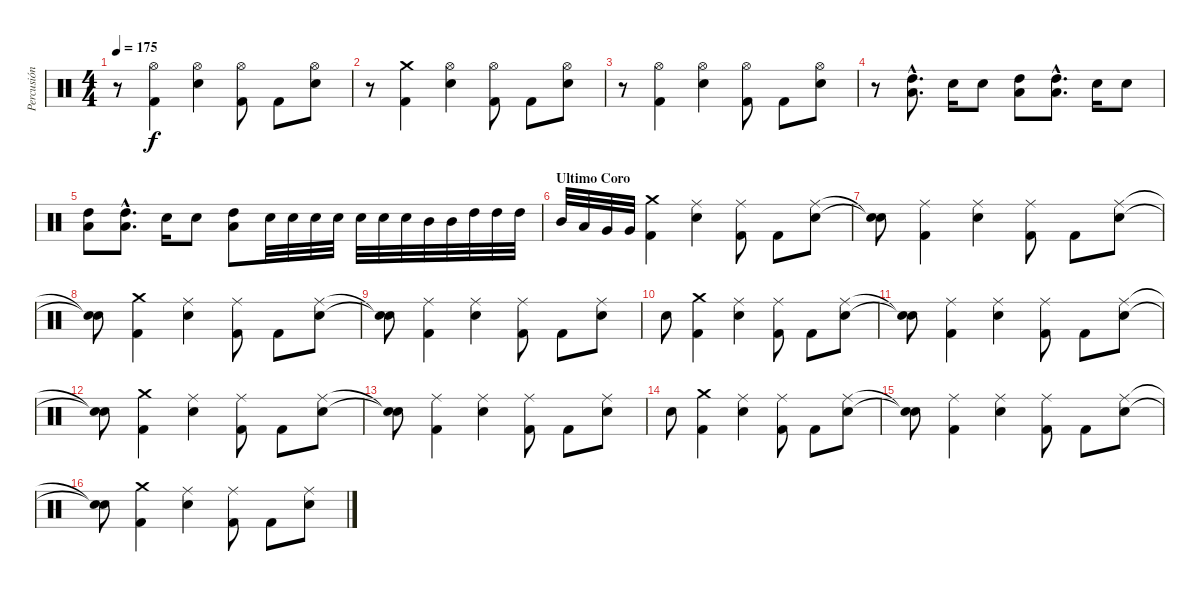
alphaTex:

\track ("Percusión" "Percusión") {instrument percussion}
\staff {score}
\articulation defaults
\ts (4 4)
\tempo 175
\clef neutral
\ks c
r.8{dy f} ("Kick (hit) 2" "Hi-Hat (open)").4 ("Hi-Hat (open)" "Snare (hit) 2").4 ("Kick (hit) 2" "Hi-Hat (open)").8 "Kick (hit) 2".8 ("Hi-Hat (open)" "Snare (hit) 2").8 |
r.8 ("Kick (hit) 2" "Crash medium (hit)").4 ("Hi-Hat (open)" "Snare (hit) 2").4 ("Kick (hit) 2" "Hi-Hat (open)").8 "Kick (hit) 2".8 ("Hi-Hat (open)" "Snare (hit) 2").8 |
r.8 ("Kick (hit) 2" "Hi-Hat (open)").4 ("Hi-Hat (open)" "Snare (hit) 2").4 ("Kick (hit) 2" "Hi-Hat (open)").8 "Kick (hit) 2".8 ("Hi-Hat (open)" "Snare (hit) 2").8 |
r.8 ("High Tom (hit)"{hac} "Low Tom (hit)"{hac}).8{d} "Snare (hit) 2".16 "Snare (hit) 2".8 ("High Tom (hit)" "Low Tom (hit)").8 ("High Tom (hit)"{hac} "Low Tom (hit)"{hac}).8{d} "Snare (hit) 2".16 "Snare (hit) 2".8 |
("High Tom (hit)" "Low Tom (hit)").8 ("High Tom (hit)"{hac} "Low Tom (hit)"{hac}).8{d} "Snare (hit) 2".16 "Snare (hit) 2".8 ("High Tom (hit)" "Low Tom (hit)").8 "Snare (hit) 2".32 "Snare (hit) 2".32 "Snare (hit) 2".32 "Snare (hit) 2".32 "Snare (hit) 2".32 "Snare (hit) 2".32 "Snare (hit) 2".32 "Mid Tom (hit)".32 "Mid Tom (hit)".32 "High Tom (hit)".32 "High Tom (hit)".32 "High Tom (hit)".32 |
\section ("" "Ultimo Coro")
"Mid Tom (hit)".32 "Low Tom (hit)".32 "Very Low Tom (hit)".32 "Very Low Tom (hit)".32 ("Crash medium (hit)" "Kick (hit) 2").4 ("Snare (hit) 2" "Ride (middle)").4 ("Ride (middle)" "Kick (hit) 2").8 "Kick (hit) 2".8 ("Ride (middle)" "Snare (hit) 2").8 |
("Snare (hit)"{t} "Snare (hit) 2"{t}).8 ("Ride (middle)" "Kick (hit) 2").4 ("Snare (hit) 2" "Ride (middle)").4 ("Ride (middle)" "Kick (hit) 2").8 "Kick (hit) 2".8 ("Ride (middle)" "Snare (hit) 2").8 |
("Snare (hit)"{t} "Snare (hit) 2"{t}).8 ("Crash medium (hit)" "Kick (hit) 2").4 ("Snare (hit) 2" "Ride (middle)").4 ("Ride (middle)" "Kick (hit) 2").8 "Kick (hit) 2".8 ("Ride (middle)" "Snare (hit) 2").8 |
("Snare (hit)"{t} "Snare (hit) 2"{t}).8 ("Ride (middle)" "Kick (hit) 2").4 ("Snare (hit) 2" "Ride (middle)").4 ("Ride (middle)" "Kick (hit) 2").8 "Kick (hit) 2".8 ("Ride (middle)" "Snare (hit) 2").8 |
"Snare (hit) 2".8 ("Crash medium (hit)" "Kick (hit) 2").4 ("Snare (hit) 2" "Ride (middle)").4 ("Ride (middle)" "Kick (hit) 2").8 "Kick (hit) 2".8 ("Ride (middle)" "Snare (hit) 2").8 |
("Snare (hit)"{t} "Snare (hit) 2"{t}).8 ("Ride (middle)" "Kick (hit) 2").4 ("Snare (hit) 2" "Ride (middle)").4 ("Ride (middle)" "Kick (hit) 2").8 "Kick (hit) 2".8 ("Ride (middle)" "Snare (hit) 2").8 |
("Snare (hit)"{t} "Snare (hit) 2"{t}).8 ("Crash medium (hit)" "Kick (hit) 2").4 ("Snare (hit) 2" "Ride (middle)").4 ("Ride (middle)" "Kick (hit) 2").8 "Kick (hit) 2".8 ("Ride (middle)" "Snare (hit) 2").8 |
("Snare (hit)"{t} "Snare (hit) 2"{t}).8 ("Ride (middle)" "Kick (hit) 2").4 ("Snare (hit) 2" "Ride (middle)").4 ("Ride (middle)" "Kick (hit) 2").8 "Kick (hit) 2".8 ("Ride (middle)" "Snare (hit) 2").8 |
"Snare (hit) 2".8 ("Crash medium (hit)" "Kick (hit) 2").4 ("Snare (hit) 2" "Ride (middle)").4 ("Ride (middle)" "Kick (hit) 2").8 "Kick (hit) 2".8 ("Ride (middle)" "Snare (hit) 2").8 |
("Snare (hit)"{t} "Snare (hit) 2"{t}).8 ("Ride (middle)" "Kick (hit) 2").4 ("Snare (hit) 2" "Ride (middle)").4 ("Ride (middle)" "Kick (hit) 2").8 "Kick (hit) 2".8 ("Ride (middle)" "Snare (hit) 2").8 |
("Snare (hit)"{t} "Snare (hit) 2"{t}).8 ("Crash medium (hit)" "Kick (hit) 2").4 ("Snare (hit) 2" "Ride (middle)").4 ("Ride (middle)" "Kick (hit) 2").8 "Kick (hit) 2".8 ("Ride (middle)" "Snare (hit) 2").8
